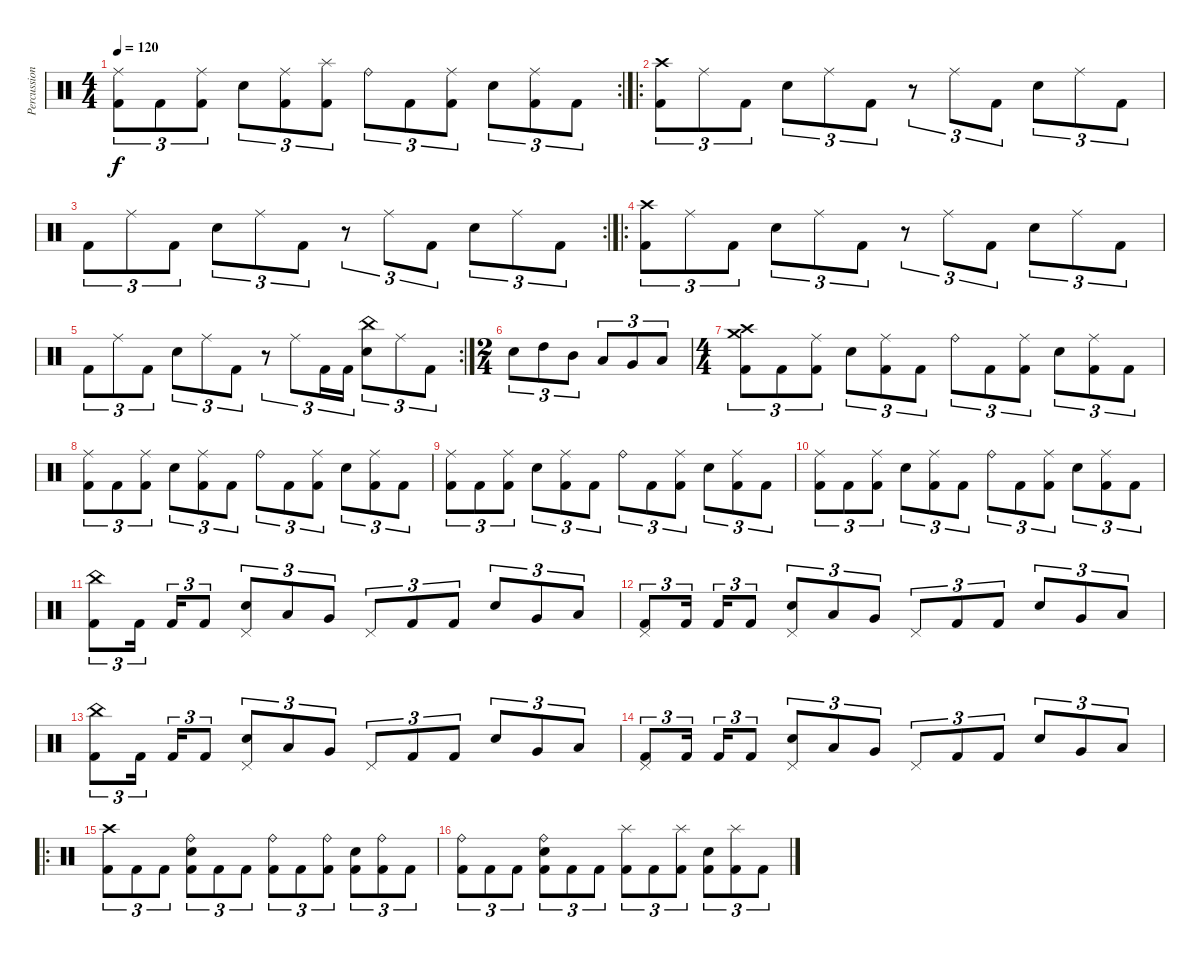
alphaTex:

\track ("Percussions" "Percussion") {instrument percussion}
\staff {score}
\articulation defaults
\rc 2
\ts (4 4)
\tempo 120
\clef neutral
\ks c
("Ride (middle)" "Kick (hit) 2").8{tu (3 2) dy f} "Kick (hit) 2".8{tu (3 2)} ("Ride (middle)" "Kick (hit) 2").8{tu (3 2)} "Electric Snare (hit)".8{tu (3 2)} ("Ride (middle)" "Kick (hit) 2").8{tu (3 2)} ("Splash (hit)" "Kick (hit) 2").8{tu (3 2)} "Ride (bell)".8{tu (3 2)} "Kick (hit) 2".8{tu (3 2)} ("Ride (middle)" "Kick (hit) 2").8{tu (3 2)} "Electric Snare (hit)".8{tu (3 2)} ("Ride (middle)" "Kick (hit) 2").8{tu (3 2)} "Kick (hit) 2".8{tu (3 2)} |
\ro
("Crash high (hit)" "Kick (hit) 2").8{tu (3 2)} "Ride (middle)".8{tu (3 2)} "Kick (hit) 2".8{tu (3 2)} "Electric Snare (hit)".8{tu (3 2)} "Ride (middle)".8{tu (3 2)} "Kick (hit) 2".8{tu (3 2)} r.8{tu (3 2)} "Ride (middle)".8{tu (3 2)} "Kick (hit) 2".8{tu (3 2)} "Electric Snare (hit)".8{tu (3 2)} "Ride (middle)".8{tu (3 2)} "Kick (hit) 2".8{tu (3 2)} |
\rc 2 "Kick (hit) 2".8{tu (3 2)} "Ride (middle)".8{tu (3 2)} "Kick (hit) 2".8{tu (3 2)} "Electric Snare (hit)".8{tu (3 2)} "Ride (middle)".8{tu (3 2)} "Kick (hit) 2".8{tu (3 2)}
r.8{tu (3 2)} "Ride (middle)".8{tu (3 2)} "Kick (hit) 2".8{tu (3 2)} "Electric Snare (hit)".8{tu (3 2)} "Ride (middle)".8{tu (3 2)} "Kick (hit) 2".8{tu (3 2)} |
\ro
("Crash high (hit)" "Kick (hit) 2").8{tu (3 2)} "Ride (middle)".8{tu (3 2)} "Kick (hit) 2".8{tu (3 2)} "Electric Snare (hit)".8{tu (3 2)} "Ride (middle)".8{tu (3 2)} "Kick (hit) 2".8{tu (3 2)} r.8{tu (3 2)} "Ride (middle)".8{tu (3 2)} "Kick (hit) 2".8{tu (3 2)} "Electric Snare (hit)".8{tu (3 2)} "Ride (middle)".8{tu (3 2)} "Kick (hit) 2".8{tu (3 2)} |
\rc 2 "Kick (hit) 2".8{tu (3 2)} "Ride (middle)".8{tu (3 2)} "Kick (hit) 2".8{tu (3 2)} "Electric Snare (hit)".8{tu (3 2)} "Ride (middle)".8{tu (3 2)} "Kick (hit) 2".8{tu (3 2)}
r.8{tu (3 2)} "Ride (middle)".8{tu (3 2)} "Kick (hit) 2".16{tu (3 2)} "Kick (hit) 2".16{tu (3 2)} ("China (hit)" "Electric Snare (hit)").8{tu (3 2)} "Ride (middle)".8{tu (3 2)} "Kick (hit) 2".8{tu (3 2)} |
\ts (2 4)
"Electric Snare (hit)".8{tu (3 2)} "High Tom (hit)".8{tu (3 2)} "Mid Tom (hit)".8{tu (3 2)} "Low Tom (hit)".8{tu (3 2)} "Very Low Tom (hit)".8{tu (3 2)} "Low Floor Tom (hit)".8{tu (3 2)} |
\ts (4 4)
("Crash medium (hit)" "Crash high (hit)" "Kick (hit) 2").8{tu (3 2)} "Kick (hit) 2".8{tu (3 2)} ("Ride (middle)" "Kick (hit) 2").8{tu (3 2)} "Electric Snare (hit)".8{tu (3 2)} ("Ride (middle)" "Kick (hit) 2").8{tu (3 2)} "Kick (hit) 2".8{tu (3 2)} "Ride (bell)".8{tu (3 2)} "Kick (hit) 2".8{tu (3 2)} ("Ride (middle)" "Kick (hit) 2").8{tu (3 2)} "Electric Snare (hit)".8{tu (3 2)} ("Ride (middle)" "Kick (hit) 2").8{tu (3 2)} "Kick (hit) 2".8{tu (3 2)} |
("Ride (middle)" "Kick (hit) 2").8{tu (3 2)} "Kick (hit) 2".8{tu (3 2)} ("Ride (middle)" "Kick (hit) 2").8{tu (3 2)} "Electric Snare (hit)".8{tu (3 2)} ("Ride (middle)" "Kick (hit) 2").8{tu (3 2)} "Kick (hit) 2".8{tu (3 2)} "Ride (bell)".8{tu (3 2)} "Kick (hit) 2".8{tu (3 2)} ("Ride (middle)" "Kick (hit) 2").8{tu (3 2)} "Electric Snare (hit)".8{tu (3 2)} ("Ride (middle)" "Kick (hit) 2").8{tu (3 2)} "Kick (hit) 2".8{tu (3 2)} |
("Ride (middle)" "Kick (hit) 2").8{tu (3 2)} "Kick (hit) 2".8{tu (3 2)} ("Ride (middle)" "Kick (hit) 2").8{tu (3 2)} "Electric Snare (hit)".8{tu (3 2)} ("Ride (middle)" "Kick (hit) 2").8{tu (3 2)} "Kick (hit) 2".8{tu (3 2)} "Ride (bell)".8{tu (3 2)} "Kick (hit) 2".8{tu (3 2)} ("Ride (middle)" "Kick (hit) 2").8{tu (3 2)} "Electric Snare (hit)".8{tu (3 2)} ("Ride (middle)" "Kick (hit) 2").8{tu (3 2)} "Kick (hit) 2".8{tu (3 2)} |
("Ride (middle)" "Kick (hit) 2").8{tu (3 2)} "Kick (hit) 2".8{tu (3 2)} ("Ride (middle)" "Kick (hit) 2").8{tu (3 2)} "Electric Snare (hit)".8{tu (3 2)} ("Ride (middle)" "Kick (hit) 2").8{tu (3 2)} "Kick (hit) 2".8{tu (3 2)} "Ride (bell)".8{tu (3 2)} "Kick (hit) 2".8{tu (3 2)} ("Ride (middle)" "Kick (hit) 2").8{tu (3 2)} "Electric Snare (hit)".8{tu (3 2)} ("Ride (middle)" "Kick (hit) 2").8{tu (3 2)} "Kick (hit) 2".8{tu (3 2)} |
("China (hit)" "Kick (hit) 2").8{tu (3 2)} "Kick (hit) 2".16{tu (3 2)} "Kick (hit) 2".16{tu (3 2)} "Kick (hit) 2".8{tu (3 2)} ("Pedal Hi-Hat (hit)" "Electric Snare (hit)").8{tu (3 2)} "Low Tom (hit)".8{tu (3 2)} "Very Low Tom (hit)".8{tu (3 2)} "Pedal Hi-Hat (hit)".8{tu (3 2)} "Kick (hit) 2".8{tu (3 2)} "Kick (hit) 2".8{tu (3 2)} "Electric Snare (hit)".8{tu (3 2)} "Very Low Tom (hit)".8{tu (3 2)} "Low Floor Tom (hit)".8{tu (3 2)} |
("Pedal Hi-Hat (hit)" "Kick (hit) 2").8{tu (3 2)} "Kick (hit) 2".16{tu (3 2)} "Kick (hit) 2".16{tu (3 2)} "Kick (hit) 2".8{tu (3 2)} ("Pedal Hi-Hat (hit)" "Electric Snare (hit)").8{tu (3 2)} "Low Tom (hit)".8{tu (3 2)} "Very Low Tom (hit)".8{tu (3 2)} "Pedal Hi-Hat (hit)".8{tu (3 2)} "Kick (hit) 2".8{tu (3 2)} "Kick (hit) 2".8{tu (3 2)} "Electric Snare (hit)".8{tu (3 2)} "Very Low Tom (hit)".8{tu (3 2)} "Low Floor Tom (hit)".8{tu (3 2)} |
("China (hit)" "Kick (hit) 2").8{tu (3 2)} "Kick (hit) 2".16{tu (3 2)} "Kick (hit) 2".16{tu (3 2)} "Kick (hit) 2".8{tu (3 2)} ("Pedal Hi-Hat (hit)" "Electric Snare (hit)").8{tu (3 2)} "Low Tom (hit)".8{tu (3 2)} "Very Low Tom (hit)".8{tu (3 2)} "Pedal Hi-Hat (hit)".8{tu (3 2)} "Kick (hit) 2".8{tu (3 2)} "Kick (hit) 2".8{tu (3 2)} "Electric Snare (hit)".8{tu (3 2)} "Very Low Tom (hit)".8{tu (3 2)} "Low Floor Tom (hit)".8{tu (3 2)} |
("Pedal Hi-Hat (hit)" "Kick (hit) 2").8{tu (3 2)} "Kick (hit) 2".16{tu (3 2)} "Kick (hit) 2".16{tu (3 2)} "Kick (hit) 2".8{tu (3 2)} ("Pedal Hi-Hat (hit)" "Electric Snare (hit)").8{tu (3 2)} "Low Tom (hit)".8{tu (3 2)} "Very Low Tom (hit)".8{tu (3 2)} "Pedal Hi-Hat (hit)".8{tu (3 2)} "Kick (hit) 2".8{tu (3 2)} "Kick (hit) 2".8{tu (3 2)} "Electric Snare (hit)".8{tu (3 2)} "Very Low Tom (hit)".8{tu (3 2)} "Low Floor Tom (hit)".8{tu (3 2)} |
\ro
("Crash high (hit)" "Kick (hit) 2").8{tu (3 2)} "Kick (hit) 2".8{tu (3 2)} "Kick (hit) 2".8{tu (3 2)} ("Ride (bell)" "Electric Snare (hit)" "Kick (hit) 2").8{tu (3 2)} "Kick (hit) 2".8{tu (3 2)} "Kick (hit) 2".8{tu (3 2)} ("Ride (bell)" "Kick (hit) 2").8{tu (3 2)} "Kick (hit) 2".8{tu (3 2)} ("Ride (bell)" "Kick (hit) 2").8{tu (3 2)} ("Electric Snare (hit)" "Kick (hit) 2").8{tu (3 2)} ("Ride (bell)" "Kick (hit) 2").8{tu (3 2)} "Kick (hit) 2".8{tu (3 2)} |
("Ride (bell)" "Kick (hit) 2").8{tu (3 2)} "Kick (hit) 2".8{tu (3 2)} "Kick (hit) 2".8{tu (3 2)} ("Ride (bell)" "Electric Snare (hit)" "Kick (hit) 2").8{tu (3 2)} "Kick (hit) 2".8{tu (3 2)} "Kick (hit) 2".8{tu (3 2)} ("Splash (hit)" "Kick (hit) 2").8{tu (3 2)} "Kick (hit) 2".8{tu (3 2)} ("Splash (hit)" "Kick (hit) 2").8{tu (3 2)} ("Electric Snare (hit)" "Kick (hit) 2").8{tu (3 2)} ("Splash (hit)" "Kick (hit) 2").8{tu (3 2)} "Kick (hit) 2".8{tu (3 2)}
